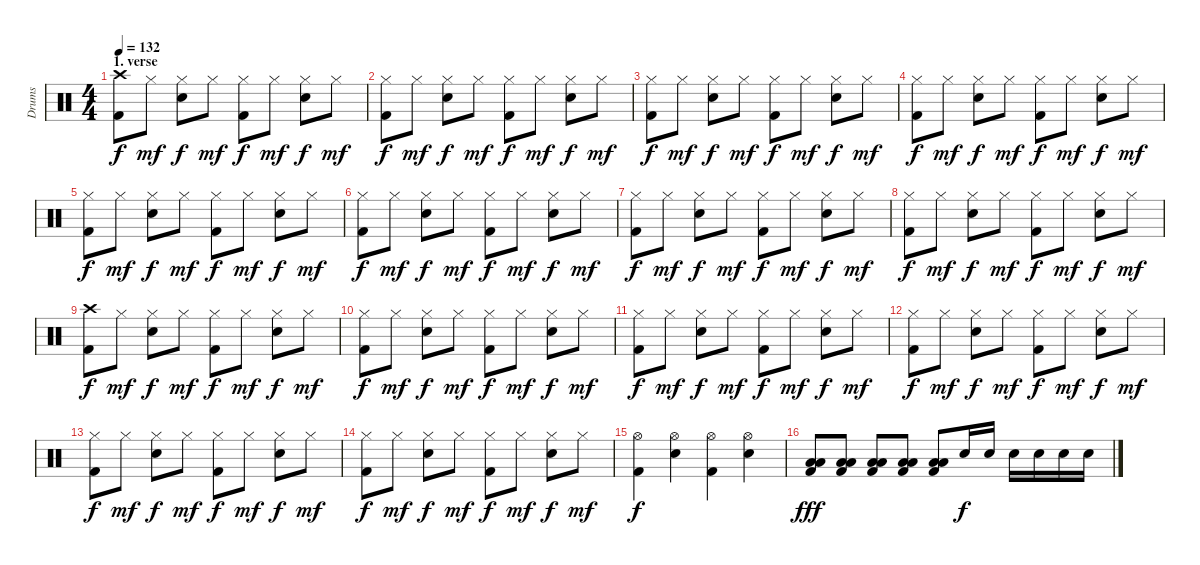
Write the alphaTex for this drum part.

\track ("Drums" "Drums") {instrument percussion}
\staff {score}
\articulation defaults
\ts (4 4)
\section ("" "1. verse")
\tempo 132
\clef neutral
\ks c
("Kick (hit) 2" "Crash high (hit)").8{dy f} "Hi-Hat (closed)".8{dy mf} ("Hi-Hat (closed)" "Snare (hit) 2").8{dy f} "Hi-Hat (closed)".8{dy mf} ("Kick (hit) 2" "Hi-Hat (closed)").8{dy f} "Hi-Hat (closed)".8{dy mf} ("Hi-Hat (closed)" "Snare (hit) 2").8{dy f} "Hi-Hat (closed)".8{dy mf} |
("Kick (hit) 2" "Hi-Hat (closed)").8{dy f} "Hi-Hat (closed)".8{dy mf} ("Hi-Hat (closed)" "Snare (hit) 2").8{dy f} "Hi-Hat (closed)".8{dy mf} ("Kick (hit) 2" "Hi-Hat (closed)").8{dy f} "Hi-Hat (closed)".8{dy mf} ("Hi-Hat (closed)" "Snare (hit) 2").8{dy f} "Hi-Hat (closed)".8{dy mf} |
("Kick (hit) 2" "Hi-Hat (closed)").8{dy f} "Hi-Hat (closed)".8{dy mf} ("Hi-Hat (closed)" "Snare (hit) 2").8{dy f} "Hi-Hat (closed)".8{dy mf} ("Kick (hit) 2" "Hi-Hat (closed)").8{dy f} "Hi-Hat (closed)".8{dy mf} ("Hi-Hat (closed)" "Snare (hit) 2").8{dy f} "Hi-Hat (closed)".8{dy mf} |
("Kick (hit) 2" "Hi-Hat (closed)").8{dy f} "Hi-Hat (closed)".8{dy mf} ("Hi-Hat (closed)" "Snare (hit) 2").8{dy f} "Hi-Hat (closed)".8{dy mf} ("Kick (hit) 2" "Hi-Hat (closed)").8{dy f} "Hi-Hat (closed)".8{dy mf} ("Hi-Hat (closed)" "Snare (hit) 2").8{dy f} "Hi-Hat (closed)".8{dy mf} |
("Kick (hit) 2" "Hi-Hat (closed)").8{dy f} "Hi-Hat (closed)".8{dy mf} ("Hi-Hat (closed)" "Snare (hit) 2").8{dy f} "Hi-Hat (closed)".8{dy mf} ("Kick (hit) 2" "Hi-Hat (closed)").8{dy f} "Hi-Hat (closed)".8{dy mf} ("Hi-Hat (closed)" "Snare (hit) 2").8{dy f} "Hi-Hat (closed)".8{dy mf} |
("Kick (hit) 2" "Hi-Hat (closed)").8{dy f} "Hi-Hat (closed)".8{dy mf} ("Hi-Hat (closed)" "Snare (hit) 2").8{dy f} "Hi-Hat (closed)".8{dy mf} ("Kick (hit) 2" "Hi-Hat (closed)").8{dy f} "Hi-Hat (closed)".8{dy mf} ("Hi-Hat (closed)" "Snare (hit) 2").8{dy f} "Hi-Hat (closed)".8{dy mf} |
("Kick (hit) 2" "Hi-Hat (closed)").8{dy f} "Hi-Hat (closed)".8{dy mf} ("Hi-Hat (closed)" "Snare (hit) 2").8{dy f} "Hi-Hat (closed)".8{dy mf} ("Kick (hit) 2" "Hi-Hat (closed)").8{dy f} "Hi-Hat (closed)".8{dy mf} ("Hi-Hat (closed)" "Snare (hit) 2").8{dy f} "Hi-Hat (closed)".8{dy mf} |
("Kick (hit) 2" "Hi-Hat (closed)").8{dy f} "Hi-Hat (closed)".8{dy mf} ("Hi-Hat (closed)" "Snare (hit) 2").8{dy f} "Hi-Hat (closed)".8{dy mf} ("Kick (hit) 2" "Hi-Hat (closed)").8{dy f} "Hi-Hat (closed)".8{dy mf} ("Hi-Hat (closed)" "Snare (hit) 2").8{dy f} "Hi-Hat (closed)".8{dy mf} |
("Kick (hit) 2" "Crash high (hit)").8{dy f} "Hi-Hat (closed)".8{dy mf} ("Hi-Hat (closed)" "Snare (hit) 2").8{dy f} "Hi-Hat (closed)".8{dy mf} ("Kick (hit) 2" "Hi-Hat (closed)").8{dy f} "Hi-Hat (closed)".8{dy mf} ("Hi-Hat (closed)" "Snare (hit) 2").8{dy f} "Hi-Hat (closed)".8{dy mf} |
("Kick (hit) 2" "Hi-Hat (closed)").8{dy f} "Hi-Hat (closed)".8{dy mf} ("Hi-Hat (closed)" "Snare (hit) 2").8{dy f} "Hi-Hat (closed)".8{dy mf} ("Kick (hit) 2" "Hi-Hat (closed)").8{dy f} "Hi-Hat (closed)".8{dy mf} ("Hi-Hat (closed)" "Snare (hit) 2").8{dy f} "Hi-Hat (closed)".8{dy mf} |
("Kick (hit) 2" "Hi-Hat (closed)").8{dy f} "Hi-Hat (closed)".8{dy mf} ("Hi-Hat (closed)" "Snare (hit) 2").8{dy f} "Hi-Hat (closed)".8{dy mf} ("Kick (hit) 2" "Hi-Hat (closed)").8{dy f} "Hi-Hat (closed)".8{dy mf} ("Hi-Hat (closed)" "Snare (hit) 2").8{dy f} "Hi-Hat (closed)".8{dy mf} |
("Kick (hit) 2" "Hi-Hat (closed)").8{dy f} "Hi-Hat (closed)".8{dy mf} ("Hi-Hat (closed)" "Snare (hit) 2").8{dy f} "Hi-Hat (closed)".8{dy mf} ("Kick (hit) 2" "Hi-Hat (closed)").8{dy f} "Hi-Hat (closed)".8{dy mf} ("Hi-Hat (closed)" "Snare (hit) 2").8{dy f} "Hi-Hat (closed)".8{dy mf} |
("Kick (hit) 2" "Hi-Hat (closed)").8{dy f} "Hi-Hat (closed)".8{dy mf} ("Hi-Hat (closed)" "Snare (hit) 2").8{dy f} "Hi-Hat (closed)".8{dy mf} ("Kick (hit) 2" "Hi-Hat (closed)").8{dy f} "Hi-Hat (closed)".8{dy mf} ("Hi-Hat (closed)" "Snare (hit) 2").8{dy f} "Hi-Hat (closed)".8{dy mf} |
("Kick (hit) 2" "Hi-Hat (closed)").8{dy f} "Hi-Hat (closed)".8{dy mf} ("Hi-Hat (closed)" "Snare (hit) 2").8{dy f} "Hi-Hat (closed)".8{dy mf} ("Kick (hit) 2" "Hi-Hat (closed)").8{dy f} "Hi-Hat (closed)".8{dy mf} ("Hi-Hat (closed)" "Snare (hit) 2").8{dy f} "Hi-Hat (closed)".8{dy mf} |
("Kick (hit) 2" "Hi-Hat (open)").4{dy f} ("Hi-Hat (open)" "Snare (hit) 2").4 ("Kick (hit) 2" "Hi-Hat (open)").4 ("Hi-Hat (open)" "Snare (hit) 2").4 |
("Kick (hit) 2" "Low Floor Tom (hit)" "Low Floor Tom (hit)").8{dy fff} ("Kick (hit) 2" "Low Floor Tom (hit)" "Low Floor Tom (hit)").8 ("Kick (hit) 2" "Low Floor Tom (hit)" "Low Floor Tom (hit)").8 ("Kick (hit) 2" "Low Floor Tom (hit)" "Low Floor Tom (hit)").8 ("Kick (hit) 2" "Low Floor Tom (hit)" "Low Floor Tom (hit)").8 "Snare (hit) 2".16{dy f} "Snare (hit) 2".16 "Snare (hit) 2".16 "Snare (hit) 2".16 "Snare (hit) 2".16 "Snare (hit) 2".16
